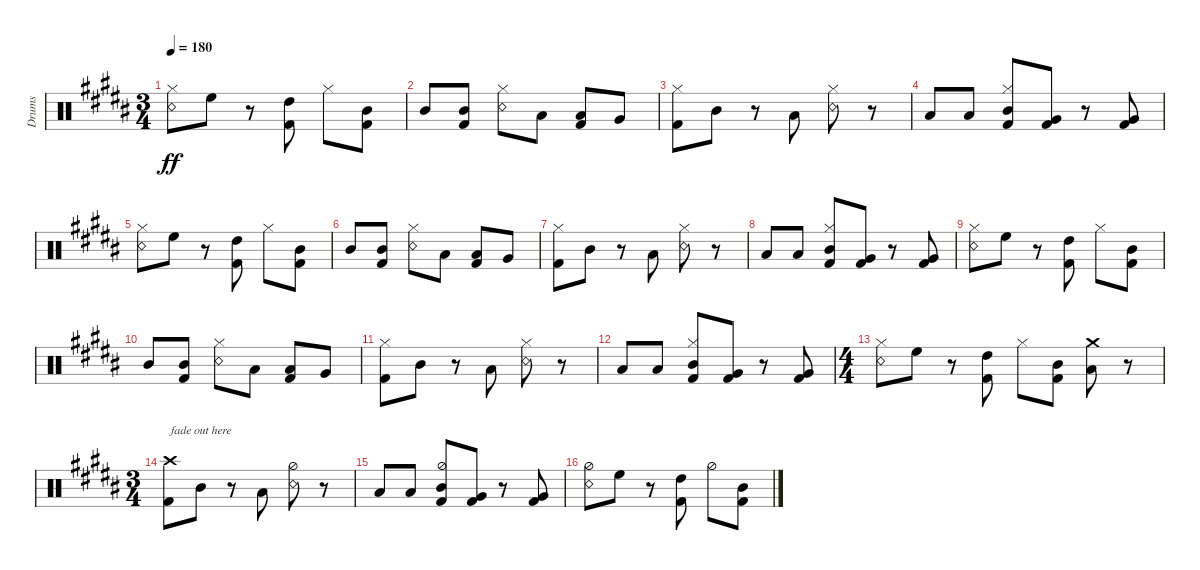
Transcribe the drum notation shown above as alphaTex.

\bracketExtendMode groupsimilarinstruments
\otherSystemsTrackNameOrientation horizontal
\track ("Drumkit" "Drums") {instrument percussion}
\staff {score}
\articulation defaults
\ts (3 4)
\tempo 180
\clef neutral
\ks b
("Snare (rim shot)"{acc bb} "Hi-Hat (closed)"{acc bb}).8{dy ff beam Down} "High Floor Tom (hit)"{acc bb}.8{beam Down} r.8{beam Down} ("Kick (hit) 2"{acc bb} "High Tom (hit)"{acc bb}).8{beam Up} "Hi-Hat (closed)"{acc bb}.8{beam Down} ("Mid Tom (hit)"{acc bb} "Kick (hit) 2"{acc bb}).8{beam Down} |
"Mid Tom (hit)"{acc bb}.8{beam Up} ("Kick (hit) 2"{acc bb} "Mid Tom (hit)"{acc bb}).8{beam Up} ("Snare (rim shot)"{acc bb} "Hi-Hat (closed)"{acc bb}).8{beam Down} "Low Tom (hit)"{acc bb}.8{beam Down} ("Kick (hit) 2"{acc bb} "Low Tom (hit)"{acc bb}).8{beam Up} "Very Low Tom (hit)"{acc bb}.8{beam Up} |
("Kick (hit) 2"{acc bb} "Hi-Hat (closed)"{acc bb}).8{beam Down} "Mid Tom (hit)"{acc bb}.8{beam Down} r.8{beam Down} "Low Tom (hit)"{acc bb}.8{beam Up} ("Snare (rim shot)"{acc bb} "Hi-Hat (closed)"{acc bb}).8{beam Down} r.8{beam Down} |
"Low Tom (hit)"{acc bb}.8{beam Up} "Low Tom (hit)"{acc bb}.8{beam Up} ("Kick (hit) 2"{acc bb} "Hi-Hat (closed)"{acc bb} "Mid Tom (hit)"{acc bb}).8{beam Up} ("Kick (hit) 2"{acc bb} "Very Low Tom (hit)"{acc bb}).8{beam Up} r.8{beam Up} ("Kick (hit) 2"{acc bb} "Very Low Tom (hit)"{acc bb}).8{beam Up} |
("Snare (rim shot)"{acc bb} "Hi-Hat (closed)"{acc bb}).8{beam Down} "High Floor Tom (hit)"{acc bb}.8{beam Down} r.8{beam Down} ("Kick (hit) 2"{acc bb} "High Tom (hit)"{acc bb}).8{beam Up} "Hi-Hat (closed)"{acc bb}.8{beam Down} ("Mid Tom (hit)"{acc bb} "Kick (hit) 2"{acc bb}).8{beam Down} |
"Mid Tom (hit)"{acc bb}.8{beam Up} ("Kick (hit) 2"{acc bb} "Mid Tom (hit)"{acc bb}).8{beam Up} ("Snare (rim shot)"{acc bb} "Hi-Hat (closed)"{acc bb}).8{beam Down} "Low Tom (hit)"{acc bb}.8{beam Down} ("Kick (hit) 2"{acc bb} "Low Tom (hit)"{acc bb}).8{beam Up} "Very Low Tom (hit)"{acc bb}.8{beam Up} |
("Kick (hit) 2"{acc bb} "Hi-Hat (closed)"{acc bb}).8{beam Down} "Mid Tom (hit)"{acc bb}.8{beam Down} r.8{beam Down} "Low Tom (hit)"{acc bb}.8{beam Up} ("Snare (rim shot)"{acc bb} "Hi-Hat (closed)"{acc bb}).8{beam Down} r.8{beam Down} |
"Low Tom (hit)"{acc bb}.8{beam Up} "Low Tom (hit)"{acc bb}.8{beam Up} ("Kick (hit) 2"{acc bb} "Hi-Hat (closed)"{acc bb} "Mid Tom (hit)"{acc bb}).8{beam Up} ("Kick (hit) 2"{acc bb} "Very Low Tom (hit)"{acc bb}).8{beam Up} r.8{beam Up} ("Kick (hit) 2"{acc bb} "Very Low Tom (hit)"{acc bb}).8{beam Up} |
("Snare (rim shot)"{acc bb} "Hi-Hat (closed)"{acc bb}).8{beam Down} "High Floor Tom (hit)"{acc bb}.8{beam Down} r.8{beam Down} ("Kick (hit) 2"{acc bb} "High Tom (hit)"{acc bb}).8{beam Up} "Hi-Hat (closed)"{acc bb}.8{beam Down} ("Mid Tom (hit)"{acc bb} "Kick (hit) 2"{acc bb}).8{beam Down} |
"Mid Tom (hit)"{acc bb}.8{beam Up} ("Kick (hit) 2"{acc bb} "Mid Tom (hit)"{acc bb}).8{beam Up} ("Snare (rim shot)"{acc bb} "Hi-Hat (closed)"{acc bb}).8{beam Down} "Low Tom (hit)"{acc bb}.8{beam Down} ("Kick (hit) 2"{acc bb} "Low Tom (hit)"{acc bb}).8{beam Up} "Very Low Tom (hit)"{acc bb}.8{beam Up} |
("Kick (hit) 2"{acc bb} "Hi-Hat (closed)"{acc bb}).8{beam Down} "Mid Tom (hit)"{acc bb}.8{beam Down} r.8{beam Down} "Low Tom (hit)"{acc bb}.8{beam Up} ("Snare (rim shot)"{acc bb} "Hi-Hat (closed)"{acc bb}).8{beam Down} r.8{beam Down} |
"Low Tom (hit)"{acc bb}.8{beam Up} "Low Tom (hit)"{acc bb}.8{beam Up} ("Kick (hit) 2"{acc bb} "Hi-Hat (closed)"{acc bb} "Mid Tom (hit)"{acc bb}).8{beam Up} ("Kick (hit) 2"{acc bb} "Very Low Tom (hit)"{acc bb}).8{beam Up} r.8{beam Up} ("Kick (hit) 2"{acc bb} "Very Low Tom (hit)"{acc bb}).8{beam Up} |
\ts (4 4)
("Snare (rim shot)"{acc bb} "Hi-Hat (closed)"{acc bb}).8{beam Down} "High Floor Tom (hit)"{acc bb}.8{beam Down} r.8{beam Down} ("Kick (hit) 2"{acc bb} "High Tom (hit)"{acc bb}).8{beam Up} "Hi-Hat (closed)"{acc bb}.8{beam Down} ("Mid Tom (hit)"{acc bb} "Kick (hit) 2"{acc bb}).8{beam Down} ("Crash medium (hit)"{acc bb} "Low Tom (hit)"{acc bb}).8{beam Down} r.8{beam Down} |
\ts (3 4)
("Crash high (hit)"{acc bb} "Kick (hit) 2"{acc bb}).8{txt "fade out here" beam Down} "Mid Tom (hit)"{acc bb}.8{beam Down} r.8{beam Down} "Low Tom (hit)"{acc bb}.8{beam Up} ("Snare (rim shot)"{acc bb} "Hi-Hat (half)"{acc bb}).8{beam Down} r.8{beam Down} |
"Low Tom (hit)"{acc bb}.8{beam Up} "Low Tom (hit)"{acc bb}.8{beam Up} ("Kick (hit) 2"{acc bb} "Hi-Hat (half)"{acc bb} "Mid Tom (hit)"{acc bb}).8{beam Up} ("Kick (hit) 2"{acc bb} "Very Low Tom (hit)"{acc bb}).8{beam Up} r.8{beam Up} ("Kick (hit) 2"{acc bb} "Very Low Tom (hit)"{acc bb}).8{beam Up} |
("Snare (rim shot)"{acc bb} "Hi-Hat (half)"{acc bb}).8{beam Down} "High Floor Tom (hit)"{acc bb}.8{beam Down} r.8{beam Down} ("Kick (hit) 2"{acc bb} "High Tom (hit)"{acc bb}).8{beam Up} "Hi-Hat (half)"{acc bb}.8{beam Down} ("Mid Tom (hit)"{acc bb} "Kick (hit) 2"{acc bb}).8{beam Down}
